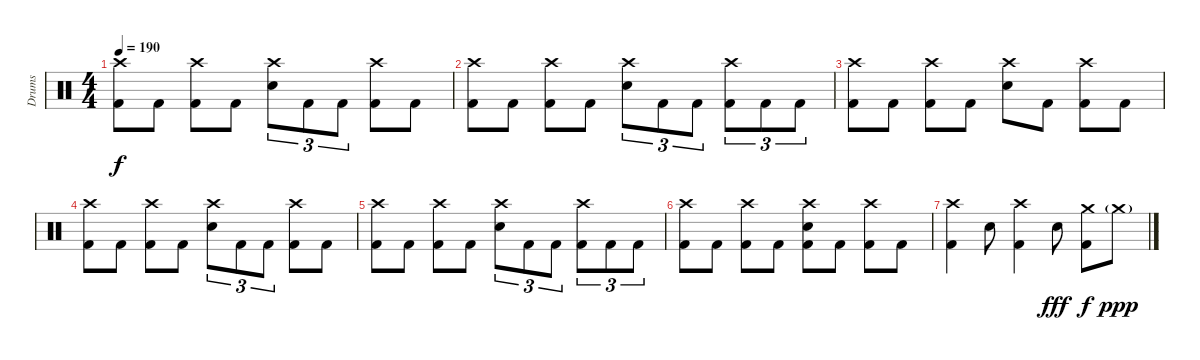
\track ("Drums" "Drums") {instrument percussion}
\staff {score}
\articulation defaults
\ts (4 4)
\tempo 190
\clef neutral
\ks c
("Crash high (hit)" "Kick (hit) 2").8{dy f} "Kick (hit) 2".8 ("Crash high (hit)" "Kick (hit) 2").8 "Kick (hit) 2".8 ("Crash high (hit)" "Electric Snare (hit)").8{tu (3 2)} "Kick (hit) 2".8{tu (3 2)} "Kick (hit) 2".8{tu (3 2)} ("Crash high (hit)" "Kick (hit) 2").8 "Kick (hit) 2".8 |
("Crash high (hit)" "Kick (hit) 2").8 "Kick (hit) 2".8 ("Crash high (hit)" "Kick (hit) 2").8 "Kick (hit) 2".8 ("Crash high (hit)" "Electric Snare (hit)").8{tu (3 2)} "Kick (hit) 2".8{tu (3 2)} "Kick (hit) 2".8{tu (3 2)} ("Crash high (hit)" "Kick (hit) 2").8{tu (3 2)} "Kick (hit) 2".8{tu (3 2)} "Kick (hit) 2".8{tu (3 2)} |
("Crash high (hit)" "Kick (hit) 2").8 "Kick (hit) 2".8 ("Crash high (hit)" "Kick (hit) 2").8 "Kick (hit) 2".8 ("Crash high (hit)" "Electric Snare (hit)").8 "Kick (hit) 2".8 ("Crash high (hit)" "Kick (hit) 2").8 "Kick (hit) 2".8 |
("Crash high (hit)" "Kick (hit) 2").8 "Kick (hit) 2".8 ("Crash high (hit)" "Kick (hit) 2").8 "Kick (hit) 2".8 ("Crash high (hit)" "Electric Snare (hit)").8{tu (3 2)} "Kick (hit) 2".8{tu (3 2)} "Kick (hit) 2".8{tu (3 2)} ("Crash high (hit)" "Kick (hit) 2").8 "Kick (hit) 2".8 |
("Crash high (hit)" "Kick (hit) 2").8 "Kick (hit) 2".8 ("Crash high (hit)" "Kick (hit) 2").8 "Kick (hit) 2".8 ("Crash high (hit)" "Electric Snare (hit)").8{tu (3 2)} "Kick (hit) 2".8{tu (3 2)} "Kick (hit) 2".8{tu (3 2)} ("Crash high (hit)" "Kick (hit) 2").8{tu (3 2)} "Kick (hit) 2".8{tu (3 2)} "Kick (hit) 2".8{tu (3 2)} |
("Crash high (hit)" "Kick (hit) 2").8 "Kick (hit) 2".8 ("Crash high (hit)" "Kick (hit) 2").8 "Kick (hit) 2".8 ("Crash high (hit)" "Electric Snare (hit)" "Kick (hit) 2").8 "Kick (hit) 2".8 ("Crash high (hit)" "Kick (hit) 2").8 "Kick (hit) 2".8 |
("Crash high (hit)" "Kick (hit) 2").4 "Electric Snare (hit)".8 ("Crash high (hit)" "Kick (hit) 2").4 "Electric Snare (hit)".8{dy fff} ("Crash medium (hit)" "Kick (hit) 2").8{dy f} "Crash medium (hit)"{g}.8{dy ppp}
